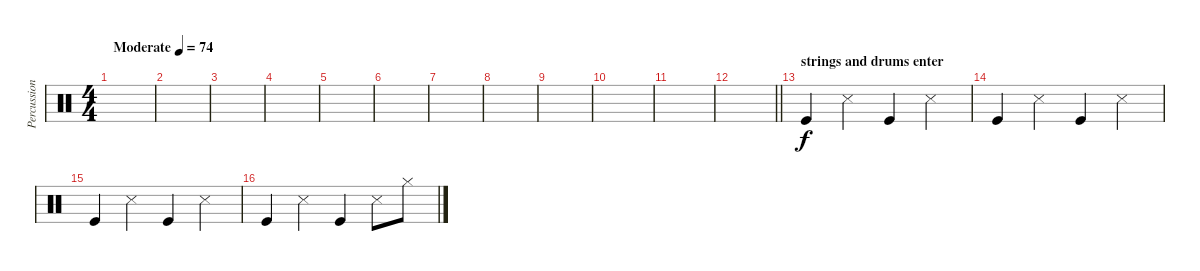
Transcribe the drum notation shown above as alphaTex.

\track ("Percussion" "Percussion") {instrument percussion}
\staff {score}
\articulation defaults
\ts (4 4)
\tempo (74 "Moderate")
\clef neutral
\ks c
|
|
|
|
|
|
|
|
|
|
|
\barLineRight lightlight
|
\section ("" "strings and drums enter")
"Kick (hit)".4 "Snare (side stick) 3".4 "Kick (hit)".4 "Snare (side stick) 3".4 |
"Kick (hit)".4 "Snare (side stick) 3".4 "Kick (hit)".4 "Snare (side stick) 3".4 |
"Kick (hit)".4 "Snare (side stick) 3".4 "Kick (hit)".4 "Snare (side stick) 3".4 |
"Kick (hit)".4 "Snare (side stick) 3".4 "Kick (hit)".4 "Snare (side stick) 3".8 "Hi-Hat (closed)".8
